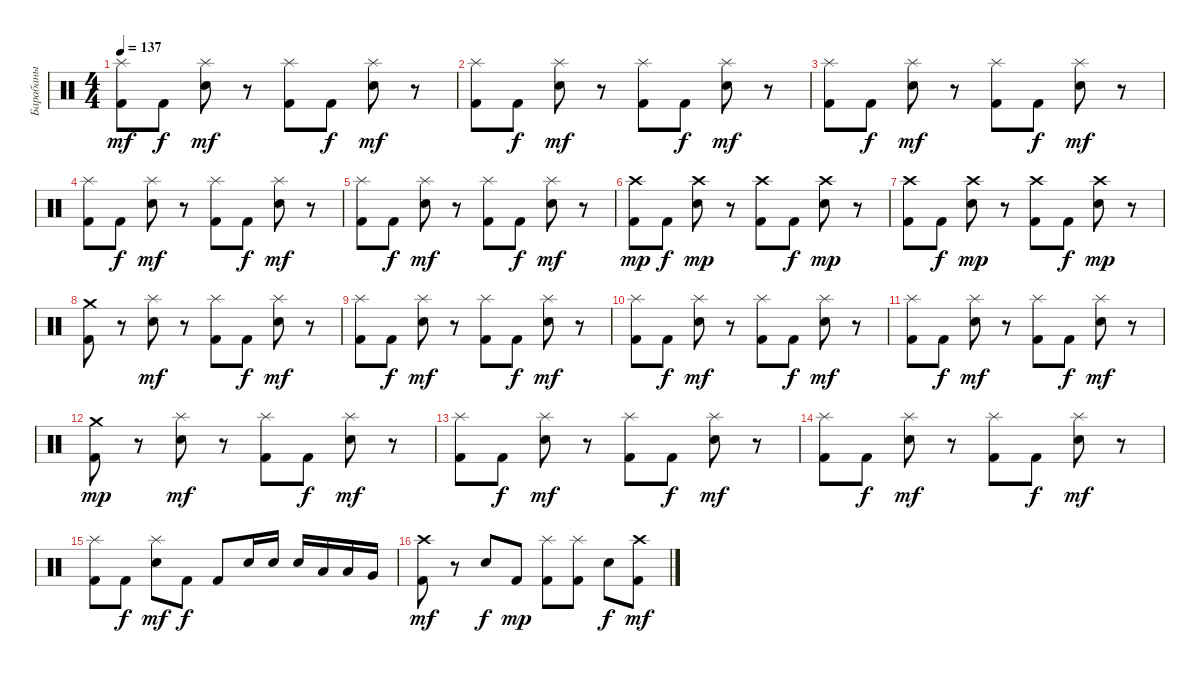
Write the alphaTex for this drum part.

\track ("Барабаны" "Барабаны") {instrument percussion}
\staff {score}
\articulation defaults
\ts (4 4)
\tempo 137
\clef neutral
\ks c
("Splash (hit)" "Kick (hit) 2").8{dy mf} "Kick (hit) 2".8{dy f} ("Splash (hit)" "Electric Snare (hit)").8{dy mf} r.8 ("Splash (hit)" "Kick (hit) 2").8 "Kick (hit) 2".8{dy f} ("Splash (hit)" "Electric Snare (hit)").8{dy mf} r.8 |
("Splash (hit)" "Kick (hit) 2").8 "Kick (hit) 2".8{dy f} ("Splash (hit)" "Electric Snare (hit)").8{dy mf} r.8 ("Splash (hit)" "Kick (hit) 2").8 "Kick (hit) 2".8{dy f} ("Splash (hit)" "Electric Snare (hit)").8{dy mf} r.8 |
("Splash (hit)" "Kick (hit) 2").8 "Kick (hit) 2".8{dy f} ("Splash (hit)" "Electric Snare (hit)").8{dy mf} r.8 ("Splash (hit)" "Kick (hit) 2").8 "Kick (hit) 2".8{dy f} ("Splash (hit)" "Electric Snare (hit)").8{dy mf} r.8 |
("Splash (hit)" "Kick (hit) 2").8 "Kick (hit) 2".8{dy f} ("Splash (hit)" "Electric Snare (hit)").8{dy mf} r.8 ("Splash (hit)" "Kick (hit) 2").8 "Kick (hit) 2".8{dy f} ("Splash (hit)" "Electric Snare (hit)").8{dy mf} r.8 |
("Splash (hit)" "Kick (hit) 2").8 "Kick (hit) 2".8{dy f} ("Splash (hit)" "Electric Snare (hit)").8{dy mf} r.8 ("Splash (hit)" "Kick (hit) 2").8 "Kick (hit) 2".8{dy f} ("Splash (hit)" "Electric Snare (hit)").8{dy mf} r.8 |
("Crash high (hit)" "Kick (hit) 2").8{dy mp} "Kick (hit) 2".8{dy f} ("Crash high (hit)" "Electric Snare (hit)").8{dy mp} r.8 ("Crash high (hit)" "Kick (hit) 2").8 "Kick (hit) 2".8{dy f} ("Crash high (hit)" "Electric Snare (hit)").8{dy mp} r.8 |
("Crash high (hit)" "Kick (hit) 2").8 "Kick (hit) 2".8{dy f} ("Crash high (hit)" "Electric Snare (hit)").8{dy mp} r.8 ("Crash high (hit)" "Kick (hit) 2").8 "Kick (hit) 2".8{dy f} ("Crash high (hit)" "Electric Snare (hit)").8{dy mp} r.8 |
("Crash medium (hit)" "Kick (hit) 2").8 r.8 ("Splash (hit)" "Electric Snare (hit)").8{dy mf} r.8 ("Splash (hit)" "Kick (hit) 2").8 "Kick (hit) 2".8{dy f} ("Splash (hit)" "Electric Snare (hit)").8{dy mf} r.8 |
("Splash (hit)" "Kick (hit) 2").8 "Kick (hit) 2".8{dy f} ("Splash (hit)" "Electric Snare (hit)").8{dy mf} r.8 ("Splash (hit)" "Kick (hit) 2").8 "Kick (hit) 2".8{dy f} ("Splash (hit)" "Electric Snare (hit)").8{dy mf} r.8 |
("Splash (hit)" "Kick (hit) 2").8 "Kick (hit) 2".8{dy f} ("Splash (hit)" "Electric Snare (hit)").8{dy mf} r.8 ("Splash (hit)" "Kick (hit) 2").8 "Kick (hit) 2".8{dy f} ("Splash (hit)" "Electric Snare (hit)").8{dy mf} r.8 |
("Splash (hit)" "Kick (hit) 2").8 "Kick (hit) 2".8{dy f} ("Splash (hit)" "Electric Snare (hit)").8{dy mf} r.8 ("Splash (hit)" "Kick (hit) 2").8 "Kick (hit) 2".8{dy f} ("Splash (hit)" "Electric Snare (hit)").8{dy mf} r.8 |
("Crash medium (hit)" "Kick (hit) 2").8{dy mp} r.8 ("Splash (hit)" "Electric Snare (hit)").8{dy mf} r.8 ("Splash (hit)" "Kick (hit) 2").8 "Kick (hit) 2".8{dy f} ("Splash (hit)" "Electric Snare (hit)").8{dy mf} r.8 |
("Splash (hit)" "Kick (hit) 2").8 "Kick (hit) 2".8{dy f} ("Splash (hit)" "Electric Snare (hit)").8{dy mf} r.8 ("Splash (hit)" "Kick (hit) 2").8 "Kick (hit) 2".8{dy f} ("Splash (hit)" "Electric Snare (hit)").8{dy mf} r.8 |
("Splash (hit)" "Kick (hit) 2").8 "Kick (hit) 2".8{dy f} ("Splash (hit)" "Electric Snare (hit)").8{dy mf} r.8 ("Splash (hit)" "Kick (hit) 2").8 "Kick (hit) 2".8{dy f} ("Splash (hit)" "Electric Snare (hit)").8{dy mf} r.8 |
("Splash (hit)" "Kick (hit) 2").8 "Kick (hit) 2".8{dy f} ("Splash (hit)" "Electric Snare (hit)").8{dy mf} "Kick (hit) 2".8{dy f} "Kick (hit) 2".8 "Electric Snare (hit)".16 "Electric Snare (hit)".16 "Electric Snare (hit)".16 "Low Tom (hit)".16 "Low Tom (hit)".16 "Very Low Tom (hit)".16 |
("Crash high (hit)" "Kick (hit) 2").8{dy mf} r.8 "Electric Snare (hit)".8{dy f} "Kick (hit) 2".8{dy mp} ("Splash (hit)" "Kick (hit) 2").8 ("Splash (hit)" "Kick (hit) 2").8 "Electric Snare (hit)".8{dy f} ("Crash high (hit)" "Kick (hit) 2").8{dy mf}
